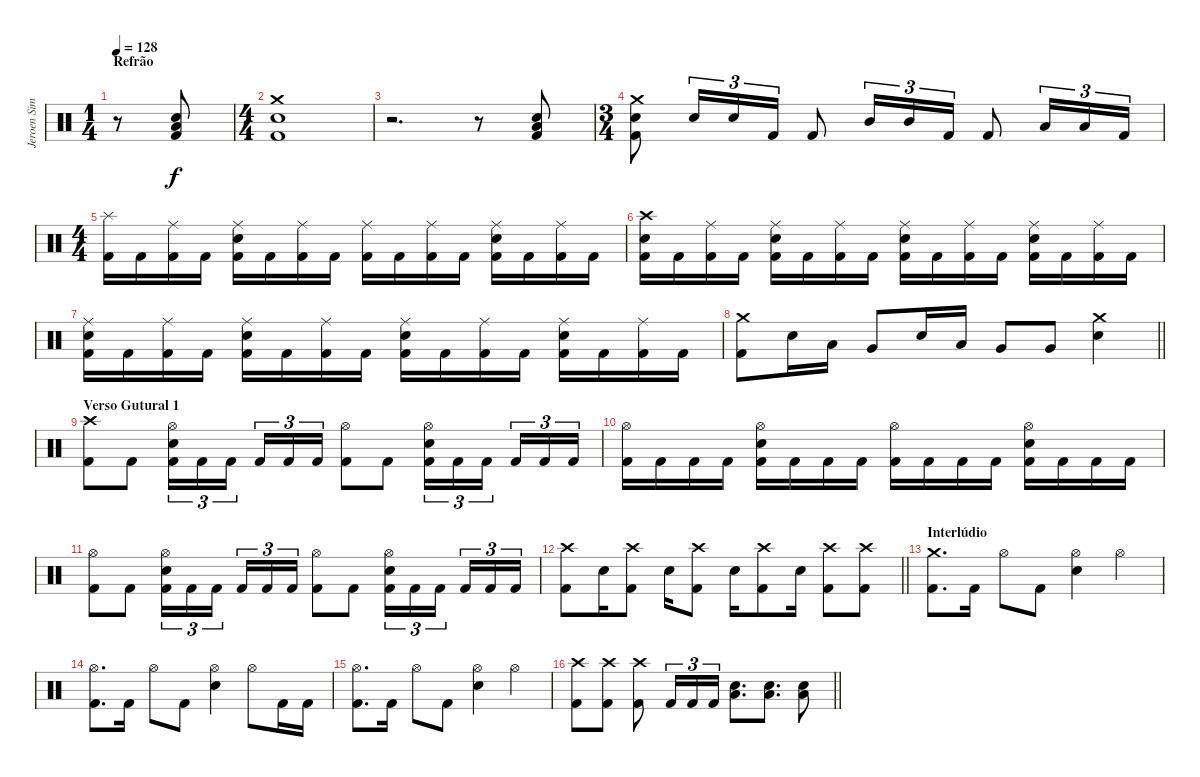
\track ("Jeroen Simons" "Jeroen Sim") {instrument percussion}
\staff {score}
\articulation defaults
\ts (1 4)
\section ("" "Refrão")
\tempo 128
\clef neutral
\ks c
r.8{dy f} ("Low Floor Tom (hit)" "Electric Snare (hit)" "Kick (hit) 2").8 |
\ts (4 4)
("Crash medium (hit)" "Electric Snare (hit)" "Kick (hit) 2").1 |
r.2{d} r.8 ("Low Floor Tom (hit)" "Electric Snare (hit)" "Kick (hit) 2").8 |
\ts (3 4)
("Crash medium (hit)" "Electric Snare (hit)" "Kick (hit) 2").8 "Electric Snare (hit)".16{tu (3 2)} "Electric Snare (hit)".16{tu (3 2)} "Kick (hit) 2".16{tu (3 2)} "Kick (hit) 2".8 "Mid Tom (hit)".16{tu (3 2)} "Mid Tom (hit)".16{tu (3 2)} "Kick (hit) 2".16{tu (3 2)} "Kick (hit) 2".8 "Low Tom (hit)".16{tu (3 2)} "Low Tom (hit)".16{tu (3 2)} "Kick (hit) 2".16{tu (3 2)} |
\ts (4 4)
("Splash (hit)" "Kick (hit) 2").16 "Kick (hit) 2".16 ("Ride (middle)" "Kick (hit) 2").16 "Kick (hit) 2".16 ("Ride (middle)" "Electric Snare (hit)" "Kick (hit) 2").16 "Kick (hit) 2".16 ("Ride (middle)" "Kick (hit) 2").16 "Kick (hit) 2".16 ("Ride (middle)" "Kick (hit) 2").16 "Kick (hit) 2".16 ("Ride (middle)" "Kick (hit) 2").16 "Kick (hit) 2".16 ("Ride (middle)" "Electric Snare (hit)" "Kick (hit) 2").16 "Kick (hit) 2".16 ("Ride (middle)" "Kick (hit) 2").16 "Kick (hit) 2".16 |
("Crash high (hit)" "Electric Snare (hit)" "Kick (hit) 2").16 "Kick (hit) 2".16 ("Ride (middle)" "Kick (hit) 2").16 "Kick (hit) 2".16 ("Ride (middle)" "Electric Snare (hit)" "Kick (hit) 2").16 "Kick (hit) 2".16 ("Ride (middle)" "Kick (hit) 2").16 "Kick (hit) 2".16 ("Ride (middle)" "Electric Snare (hit)" "Kick (hit) 2").16 "Kick (hit) 2".16 ("Ride (middle)" "Kick (hit) 2").16 "Kick (hit) 2".16 ("Ride (middle)" "Electric Snare (hit)" "Kick (hit) 2").16 "Kick (hit) 2".16 ("Ride (middle)" "Kick (hit) 2").16 "Kick (hit) 2".16 |
("Ride (middle)" "Electric Snare (hit)" "Kick (hit) 2").16 "Kick (hit) 2".16 ("Ride (middle)" "Kick (hit) 2").16 "Kick (hit) 2".16 ("Ride (middle)" "Electric Snare (hit)" "Kick (hit) 2").16 "Kick (hit) 2".16 ("Ride (middle)" "Kick (hit) 2").16 "Kick (hit) 2".16 ("Ride (middle)" "Electric Snare (hit)" "Kick (hit) 2").16 "Kick (hit) 2".16 ("Ride (middle)" "Kick (hit) 2").16 "Kick (hit) 2".16 ("Ride (middle)" "Electric Snare (hit)" "Kick (hit) 2").16 "Kick (hit) 2".16 ("Ride (middle)" "Kick (hit) 2").16 "Kick (hit) 2".16 |
\barLineRight lightlight
("Crash medium (hit)" "Kick (hit) 2").8 "Electric Snare (hit)".16 "Low Tom (hit)".16 "Very Low Tom (hit)".8 "Electric Snare (hit)".16 "Low Tom (hit)".16 "Very Low Tom (hit)".8 "Very Low Tom (hit)".8 ("Crash medium (hit)" "Electric Snare (hit)").4 |
\section ("" "Verso Gutural 1")
("Crash high (hit)" "Kick (hit) 2").8 "Kick (hit) 2".8 ("Hi-Hat (open)" "Electric Snare (hit)" "Kick (hit) 2").16{tu (3 2)} "Kick (hit) 2".16{tu (3 2)} "Kick (hit) 2".16{tu (3 2) beam splitsecondary} "Kick (hit) 2".16{tu (3 2)} "Kick (hit) 2".16{tu (3 2)} "Kick (hit) 2".16{tu (3 2)} ("Hi-Hat (open)" "Kick (hit) 2").8 "Kick (hit) 2".8 ("Hi-Hat (open)" "Electric Snare (hit)" "Kick (hit) 2").16{tu (3 2)} "Kick (hit) 2".16{tu (3 2)} "Kick (hit) 2".16{tu (3 2) beam splitsecondary} "Kick (hit) 2".16{tu (3 2)} "Kick (hit) 2".16{tu (3 2)} "Kick (hit) 2".16{tu (3 2)} |
("Hi-Hat (open)" "Kick (hit) 2").16 "Kick (hit) 2".16 "Kick (hit) 2".16 "Kick (hit) 2".16 ("Hi-Hat (open)" "Electric Snare (hit)" "Kick (hit) 2").16 "Kick (hit) 2".16 "Kick (hit) 2".16 "Kick (hit) 2".16 ("Hi-Hat (open)" "Kick (hit) 2").16 "Kick (hit) 2".16 "Kick (hit) 2".16 "Kick (hit) 2".16 ("Hi-Hat (open)" "Electric Snare (hit)" "Kick (hit) 2").16 "Kick (hit) 2".16 "Kick (hit) 2".16 "Kick (hit) 2".16 |
("Hi-Hat (open)" "Kick (hit) 2").8 "Kick (hit) 2".8 ("Hi-Hat (open)" "Electric Snare (hit)" "Kick (hit) 2").16{tu (3 2)} "Kick (hit) 2".16{tu (3 2)} "Kick (hit) 2".16{tu (3 2) beam splitsecondary} "Kick (hit) 2".16{tu (3 2)} "Kick (hit) 2".16{tu (3 2)} "Kick (hit) 2".16{tu (3 2)} ("Hi-Hat (open)" "Kick (hit) 2").8 "Kick (hit) 2".8 ("Hi-Hat (open)" "Electric Snare (hit)" "Kick (hit) 2").16{tu (3 2)} "Kick (hit) 2".16{tu (3 2)} "Kick (hit) 2".16{tu (3 2) beam splitsecondary} "Kick (hit) 2".16{tu (3 2)} "Kick (hit) 2".16{tu (3 2)} "Kick (hit) 2".16{tu (3 2)} |
\barLineRight lightlight
("Crash high (hit)" "Kick (hit) 2").8 "Electric Snare (hit)".16 ("Crash high (hit)" "Kick (hit) 2").8 "Electric Snare (hit)".16 ("Crash high (hit)" "Kick (hit) 2").8 "Electric Snare (hit)".16 ("Crash high (hit)" "Kick (hit) 2").8 "Electric Snare (hit)".16 ("Crash high (hit)" "Kick (hit) 2").8 ("Crash high (hit)" "Kick (hit) 2").8 |
\section ("" "Interlúdio")
("Crash medium (hit)" "Kick (hit) 2").8{d} "Kick (hit) 2".16 "Hi-Hat (open)".8 "Kick (hit) 2".8 ("Hi-Hat (open)" "Electric Snare (hit)").4 "Hi-Hat (open)".4 |
("Hi-Hat (open)" "Kick (hit) 2").8{d} "Kick (hit) 2".16 "Hi-Hat (open)".8 "Kick (hit) 2".8 ("Hi-Hat (open)" "Electric Snare (hit)").4 "Hi-Hat (open)".8 "Kick (hit) 2".16 "Kick (hit) 2".16 |
("Hi-Hat (open)" "Kick (hit) 2").8{d} "Kick (hit) 2".16 "Hi-Hat (open)".8 "Kick (hit) 2".8 ("Hi-Hat (open)" "Electric Snare (hit)").4 "Hi-Hat (open)".4 |
\barLineRight lightlight
("Crash high (hit)" "Kick (hit) 2").8 ("Crash high (hit)" "Kick (hit) 2").8 ("Crash high (hit)" "Kick (hit) 2").8 "Kick (hit) 2".16{tu (3 2)} "Kick (hit) 2".16{tu (3 2)} "Kick (hit) 2".16{tu (3 2)} ("Low Tom (hit)" "Electric Snare (hit)").8{d} ("Low Tom (hit)" "Electric Snare (hit)").8{d} ("Low Tom (hit)" "Electric Snare (hit)").8
